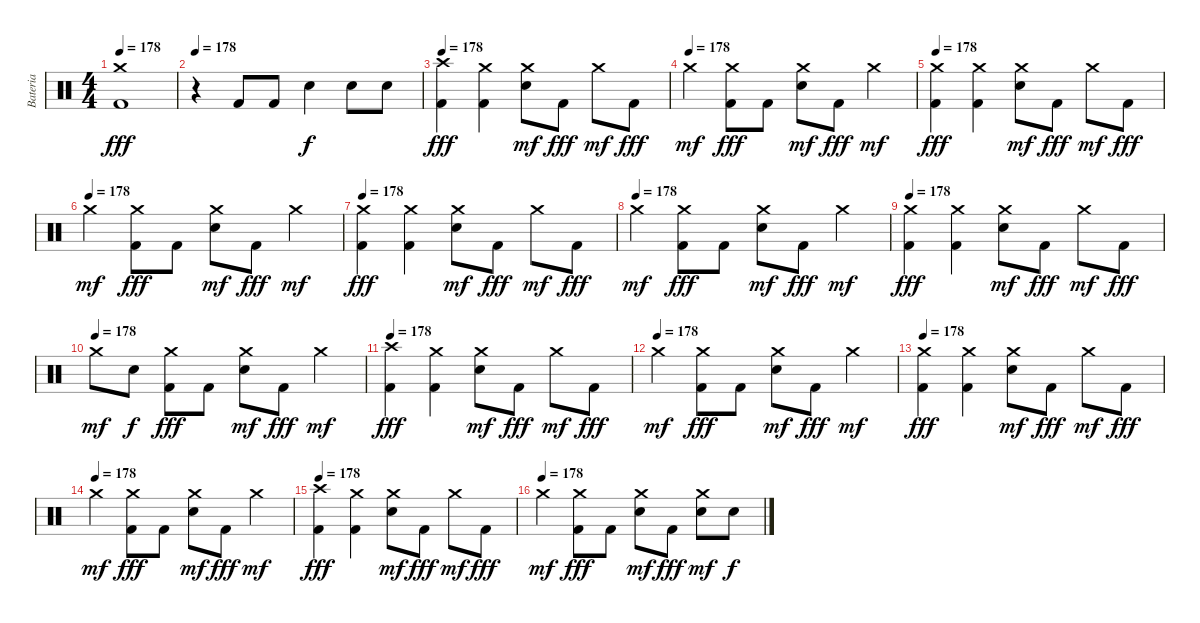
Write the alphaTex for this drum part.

\track ("Bateria" "Bateria") {instrument percussion}
\staff {score}
\articulation defaults
\ts (4 4)
\tempo 178
\clef neutral
\ks c
("Crash medium (hit)" "Kick (hit) 2").1{dy fff} |
\tempo 178
r.4 "Kick (hit) 2".8 "Kick (hit) 2".8 "Electric Snare (hit)".4{dy f} "Electric Snare (hit)".8 "Electric Snare (hit)".8 |
\tempo 178
("Crash high (hit)" "Kick (hit) 2").4{dy fff} ("Crash medium (hit)" "Kick (hit) 2").4 ("Crash medium (hit)" "Electric Snare (hit)").8{dy mf} "Kick (hit) 2".8{dy fff} "Crash medium (hit)".8{dy mf} "Kick (hit) 2".8{dy fff} |
\tempo (178)
"Crash medium (hit)".4{dy mf} ("Crash medium (hit)" "Kick (hit) 2").8{dy fff} "Kick (hit) 2".8 ("Crash medium (hit)" "Electric Snare (hit)").8{dy mf} "Kick (hit) 2".8{dy fff} "Crash medium (hit)".4{dy mf} |
\tempo 178
("Crash medium (hit)" "Kick (hit) 2").4{dy fff} ("Crash medium (hit)" "Kick (hit) 2").4 ("Crash medium (hit)" "Electric Snare (hit)").8{dy mf} "Kick (hit) 2".8{dy fff} "Crash medium (hit)".8{dy mf} "Kick (hit) 2".8{dy fff} |
\tempo (178)
"Crash medium (hit)".4{dy mf} ("Crash medium (hit)" "Kick (hit) 2").8{dy fff} "Kick (hit) 2".8 ("Crash medium (hit)" "Electric Snare (hit)").8{dy mf} "Kick (hit) 2".8{dy fff} "Crash medium (hit)".4{dy mf} |
\tempo 178
("Crash medium (hit)" "Kick (hit) 2").4{dy fff} ("Crash medium (hit)" "Kick (hit) 2").4 ("Crash medium (hit)" "Electric Snare (hit)").8{dy mf} "Kick (hit) 2".8{dy fff} "Crash medium (hit)".8{dy mf} "Kick (hit) 2".8{dy fff} |
\tempo (178)
"Crash medium (hit)".4{dy mf} ("Crash medium (hit)" "Kick (hit) 2").8{dy fff} "Kick (hit) 2".8 ("Crash medium (hit)" "Electric Snare (hit)").8{dy mf} "Kick (hit) 2".8{dy fff} "Crash medium (hit)".4{dy mf} |
\tempo 178
("Crash medium (hit)" "Kick (hit) 2").4{dy fff} ("Crash medium (hit)" "Kick (hit) 2").4 ("Crash medium (hit)" "Electric Snare (hit)").8{dy mf} "Kick (hit) 2".8{dy fff} "Crash medium (hit)".8{dy mf} "Kick (hit) 2".8{dy fff} |
\tempo (178)
"Crash medium (hit)".8{dy mf} "Electric Snare (hit)".8{dy f} ("Crash medium (hit)" "Kick (hit) 2").8{dy fff} "Kick (hit) 2".8 ("Crash medium (hit)" "Electric Snare (hit)").8{dy mf} "Kick (hit) 2".8{dy fff} "Crash medium (hit)".4{dy mf} |
\tempo 178
("Crash high (hit)" "Kick (hit) 2").4{dy fff} ("Crash medium (hit)" "Kick (hit) 2").4 ("Crash medium (hit)" "Electric Snare (hit)").8{dy mf} "Kick (hit) 2".8{dy fff} "Crash medium (hit)".8{dy mf} "Kick (hit) 2".8{dy fff} |
\tempo (178)
"Crash medium (hit)".4{dy mf} ("Crash medium (hit)" "Kick (hit) 2").8{dy fff} "Kick (hit) 2".8 ("Crash medium (hit)" "Electric Snare (hit)").8{dy mf} "Kick (hit) 2".8{dy fff} "Crash medium (hit)".4{dy mf} |
\tempo 178
("Crash medium (hit)" "Kick (hit) 2").4{dy fff} ("Crash medium (hit)" "Kick (hit) 2").4 ("Crash medium (hit)" "Electric Snare (hit)").8{dy mf} "Kick (hit) 2".8{dy fff} "Crash medium (hit)".8{dy mf} "Kick (hit) 2".8{dy fff} |
\tempo (178)
"Crash medium (hit)".4{dy mf} ("Crash medium (hit)" "Kick (hit) 2").8{dy fff} "Kick (hit) 2".8 ("Crash medium (hit)" "Electric Snare (hit)").8{dy mf} "Kick (hit) 2".8{dy fff} "Crash medium (hit)".4{dy mf} |
\tempo 178
("Crash high (hit)" "Kick (hit) 2").4{dy fff} ("Crash medium (hit)" "Kick (hit) 2").4 ("Crash medium (hit)" "Electric Snare (hit)").8{dy mf} "Kick (hit) 2".8{dy fff} "Crash medium (hit)".8{dy mf} "Kick (hit) 2".8{dy fff} |
\tempo (178)
"Crash medium (hit)".4{dy mf} ("Crash medium (hit)" "Kick (hit) 2").8{dy fff} "Kick (hit) 2".8 ("Crash medium (hit)" "Electric Snare (hit)").8{dy mf} "Kick (hit) 2".8{dy fff} ("Crash medium (hit)" "Electric Snare (hit)").8{dy mf} "Electric Snare (hit)".8{dy f}
